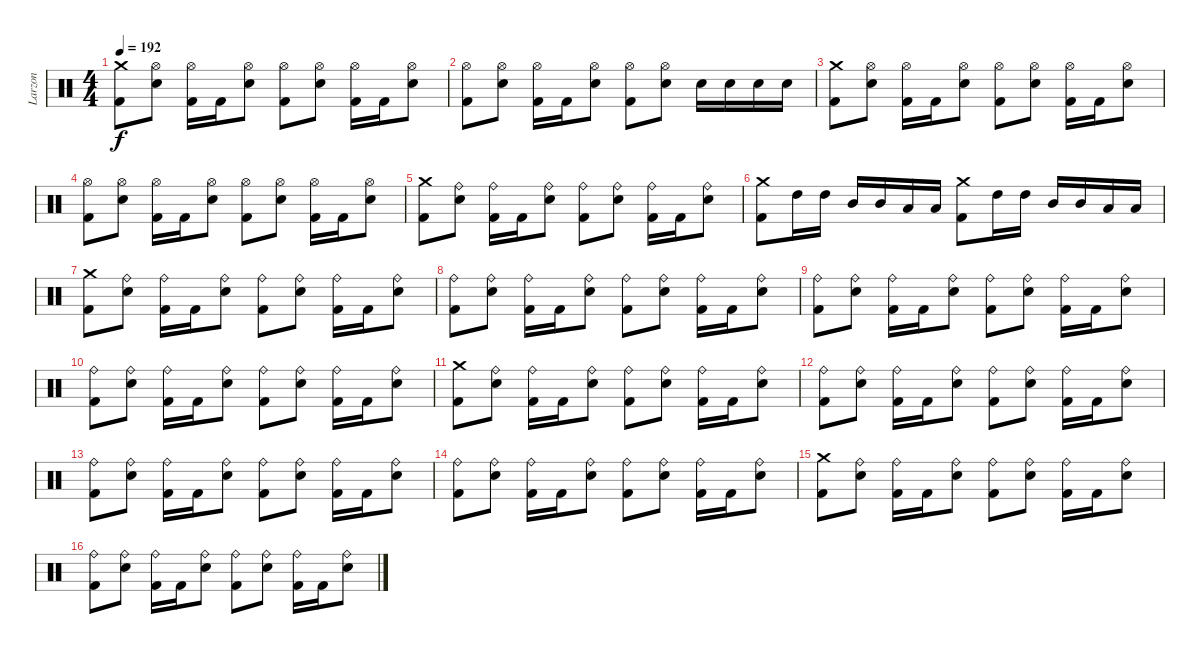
\track ("Larzon" "Larzon") {instrument percussion}
\staff {score}
\articulation defaults
\ts (4 4)
\tempo 192
\clef neutral
\ks c
("Crash medium (hit)" "Kick (hit) 2").8{dy f} ("Hi-Hat (open)" "Electric Snare (hit)").8 ("Hi-Hat (open)" "Kick (hit) 2").16 "Kick (hit) 2".16 ("Hi-Hat (open)" "Electric Snare (hit)").8 ("Hi-Hat (open)" "Kick (hit) 2").8 ("Hi-Hat (open)" "Electric Snare (hit)").8 ("Hi-Hat (open)" "Kick (hit) 2").16 "Kick (hit) 2".16 ("Hi-Hat (open)" "Electric Snare (hit)").8 |
("Hi-Hat (open)" "Kick (hit) 2").8 ("Hi-Hat (open)" "Electric Snare (hit)").8 ("Hi-Hat (open)" "Kick (hit) 2").16 "Kick (hit) 2".16 ("Hi-Hat (open)" "Electric Snare (hit)").8 ("Hi-Hat (open)" "Kick (hit) 2").8 ("Hi-Hat (open)" "Electric Snare (hit)").8 "Electric Snare (hit)".16 "Electric Snare (hit)".16 "Electric Snare (hit)".16 "Electric Snare (hit)".16 |
("Crash medium (hit)" "Kick (hit) 2").8 ("Hi-Hat (open)" "Electric Snare (hit)").8 ("Hi-Hat (open)" "Kick (hit) 2").16 "Kick (hit) 2".16 ("Hi-Hat (open)" "Electric Snare (hit)").8 ("Hi-Hat (open)" "Kick (hit) 2").8 ("Hi-Hat (open)" "Electric Snare (hit)").8 ("Hi-Hat (open)" "Kick (hit) 2").16 "Kick (hit) 2".16 ("Hi-Hat (open)" "Electric Snare (hit)").8 |
("Hi-Hat (open)" "Kick (hit) 2").8 ("Hi-Hat (open)" "Electric Snare (hit)").8 ("Hi-Hat (open)" "Kick (hit) 2").16 "Kick (hit) 2".16 ("Hi-Hat (open)" "Electric Snare (hit)").8 ("Hi-Hat (open)" "Kick (hit) 2").8 ("Hi-Hat (open)" "Electric Snare (hit)").8 ("Hi-Hat (open)" "Kick (hit) 2").16 "Kick (hit) 2".16 ("Hi-Hat (open)" "Electric Snare (hit)").8 |
("Crash medium (hit)" "Kick (hit) 2").8 ("Ride (bell)" "Electric Snare (hit)").8 ("Ride (bell)" "Kick (hit) 2").16 "Kick (hit) 2".16 ("Ride (bell)" "Electric Snare (hit)").8 ("Ride (bell)" "Kick (hit) 2").8 ("Ride (bell)" "Electric Snare (hit)").8 ("Ride (bell)" "Kick (hit) 2").16 "Kick (hit) 2".16 ("Ride (bell)" "Electric Snare (hit)").8 |
("Crash medium (hit)" "Kick (hit) 2").8 "High Tom (hit)".16 "High Tom (hit)".16 "Mid Tom (hit)".16 "Mid Tom (hit)".16 "Low Tom (hit)".16 "Low Tom (hit)".16 ("Crash medium (hit)" "Kick (hit) 2").8 "High Tom (hit)".16 "High Tom (hit)".16 "Mid Tom (hit)".16 "Mid Tom (hit)".16 "Low Tom (hit)".16 "Low Tom (hit)".16 |
("Crash medium (hit)" "Kick (hit) 2").8 ("Ride (bell)" "Electric Snare (hit)").8 ("Ride (bell)" "Kick (hit) 2").16 "Kick (hit) 2".16 ("Ride (bell)" "Electric Snare (hit)").8 ("Ride (bell)" "Kick (hit) 2").8 ("Ride (bell)" "Electric Snare (hit)").8 ("Ride (bell)" "Kick (hit) 2").16 "Kick (hit) 2".16 ("Ride (bell)" "Electric Snare (hit)").8 |
("Ride (bell)" "Kick (hit) 2").8 ("Ride (bell)" "Electric Snare (hit)").8 ("Ride (bell)" "Kick (hit) 2").16 "Kick (hit) 2".16 ("Ride (bell)" "Electric Snare (hit)").8 ("Ride (bell)" "Kick (hit) 2").8 ("Ride (bell)" "Electric Snare (hit)").8 ("Ride (bell)" "Kick (hit) 2").16 "Kick (hit) 2".16 ("Ride (bell)" "Electric Snare (hit)").8 |
("Ride (bell)" "Kick (hit) 2").8 ("Ride (bell)" "Electric Snare (hit)").8 ("Ride (bell)" "Kick (hit) 2").16 "Kick (hit) 2".16 ("Ride (bell)" "Electric Snare (hit)").8 ("Ride (bell)" "Kick (hit) 2").8 ("Ride (bell)" "Electric Snare (hit)").8 ("Ride (bell)" "Kick (hit) 2").16 "Kick (hit) 2".16 ("Ride (bell)" "Electric Snare (hit)").8 |
("Ride (bell)" "Kick (hit) 2").8 ("Ride (bell)" "Electric Snare (hit)").8 ("Ride (bell)" "Kick (hit) 2").16 "Kick (hit) 2".16 ("Ride (bell)" "Electric Snare (hit)").8 ("Ride (bell)" "Kick (hit) 2").8 ("Ride (bell)" "Electric Snare (hit)").8 ("Ride (bell)" "Kick (hit) 2").16 "Kick (hit) 2".16 ("Ride (bell)" "Electric Snare (hit)").8 |
("Crash medium (hit)" "Kick (hit) 2").8 ("Ride (bell)" "Electric Snare (hit)").8 ("Ride (bell)" "Kick (hit) 2").16 "Kick (hit) 2".16 ("Ride (bell)" "Electric Snare (hit)").8 ("Ride (bell)" "Kick (hit) 2").8 ("Ride (bell)" "Electric Snare (hit)").8 ("Ride (bell)" "Kick (hit) 2").16 "Kick (hit) 2".16 ("Ride (bell)" "Electric Snare (hit)").8 |
("Ride (bell)" "Kick (hit) 2").8 ("Ride (bell)" "Electric Snare (hit)").8 ("Ride (bell)" "Kick (hit) 2").16 "Kick (hit) 2".16 ("Ride (bell)" "Electric Snare (hit)").8 ("Ride (bell)" "Kick (hit) 2").8 ("Ride (bell)" "Electric Snare (hit)").8 ("Ride (bell)" "Kick (hit) 2").16 "Kick (hit) 2".16 ("Ride (bell)" "Electric Snare (hit)").8 |
("Ride (bell)" "Kick (hit) 2").8 ("Ride (bell)" "Electric Snare (hit)").8 ("Ride (bell)" "Kick (hit) 2").16 "Kick (hit) 2".16 ("Ride (bell)" "Electric Snare (hit)").8 ("Ride (bell)" "Kick (hit) 2").8 ("Ride (bell)" "Electric Snare (hit)").8 ("Ride (bell)" "Kick (hit) 2").16 "Kick (hit) 2".16 ("Ride (bell)" "Electric Snare (hit)").8 |
("Ride (bell)" "Kick (hit) 2").8 ("Ride (bell)" "Electric Snare (hit)").8 ("Ride (bell)" "Kick (hit) 2").16 "Kick (hit) 2".16 ("Ride (bell)" "Electric Snare (hit)").8 ("Ride (bell)" "Kick (hit) 2").8 ("Ride (bell)" "Electric Snare (hit)").8 ("Ride (bell)" "Kick (hit) 2").16 "Kick (hit) 2".16 ("Ride (bell)" "Electric Snare (hit)").8 |
("Crash medium (hit)" "Kick (hit) 2").8 ("Ride (bell)" "Electric Snare (hit)").8 ("Ride (bell)" "Kick (hit) 2").16 "Kick (hit) 2".16 ("Ride (bell)" "Electric Snare (hit)").8 ("Ride (bell)" "Kick (hit) 2").8 ("Ride (bell)" "Electric Snare (hit)").8 ("Ride (bell)" "Kick (hit) 2").16 "Kick (hit) 2".16 ("Ride (bell)" "Electric Snare (hit)").8 |
("Ride (bell)" "Kick (hit) 2").8 ("Ride (bell)" "Electric Snare (hit)").8 ("Ride (bell)" "Kick (hit) 2").16 "Kick (hit) 2".16 ("Ride (bell)" "Electric Snare (hit)").8 ("Ride (bell)" "Kick (hit) 2").8 ("Ride (bell)" "Electric Snare (hit)").8 ("Ride (bell)" "Kick (hit) 2").16 "Kick (hit) 2".16 ("Ride (bell)" "Electric Snare (hit)").8
